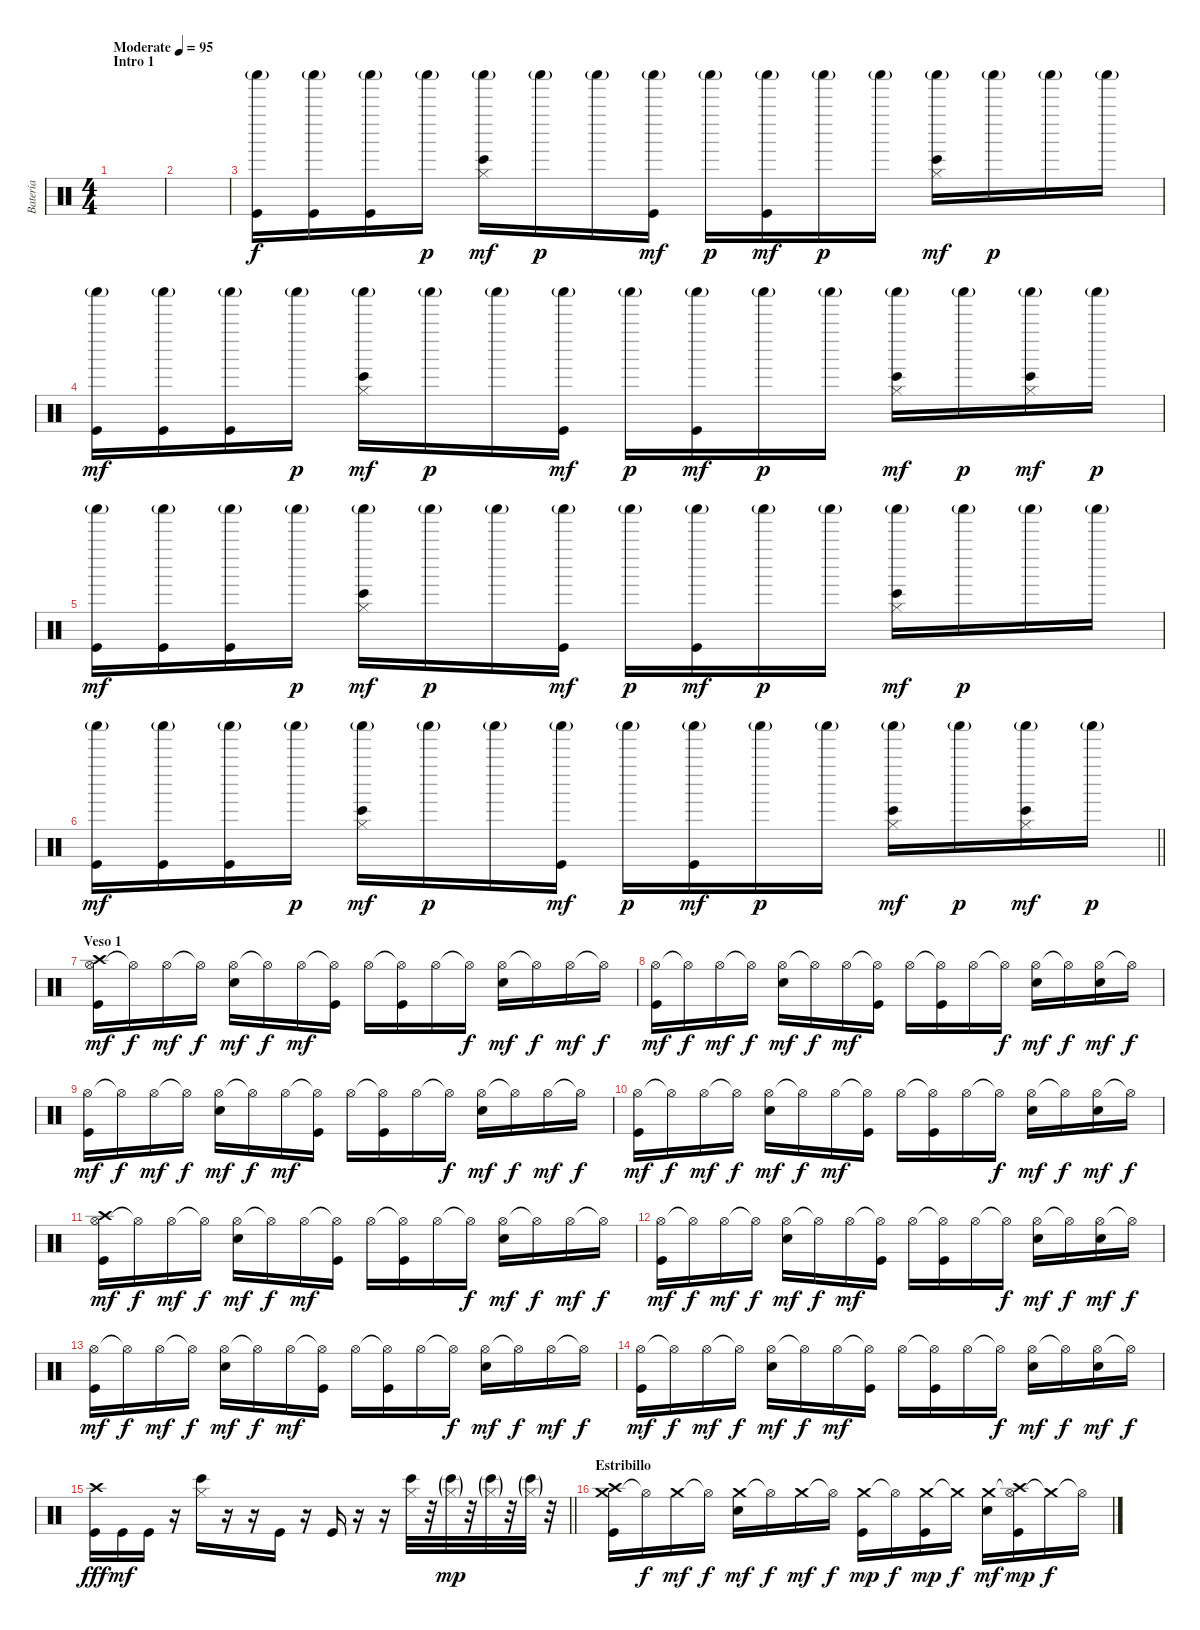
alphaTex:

\track ("Batería" "Batería") {instrument percussion}
\staff {score}
\articulation defaults
\ts (4 4)
\section ("" "Intro 1")
\tempo (95 "Moderate")
\clef neutral
\ks c
|
|
("Shaker (hit)"{g} "Kick (hit)").16 ("Shaker (hit)"{g} "Kick (hit)").16 ("Shaker (hit)"{g} "Kick (hit)").16 "Shaker (hit)"{g}.16{dy p} ("Shaker (hit)"{g} "Bongo High (hit)" "Hi-Hat (closed)").16{dy mf} "Shaker (hit)"{g}.16{dy p} "Shaker (hit)"{g}.16 ("Shaker (hit)"{g} "Kick (hit)").16{dy mf} "Shaker (hit)"{g}.16{dy p} ("Shaker (hit)"{g} "Kick (hit)").16{dy mf} "Shaker (hit)"{g}.16{dy p} "Shaker (hit)"{g}.16 ("Shaker (hit)"{g} "Bongo High (hit)" "Hi-Hat (closed)").16{dy mf} "Shaker (hit)"{g}.16{dy p} "Shaker (hit)"{g}.16 "Shaker (hit)"{g}.16 |
("Shaker (hit)"{g} "Kick (hit)").16{dy mf} ("Shaker (hit)"{g} "Kick (hit)").16 ("Shaker (hit)"{g} "Kick (hit)").16 "Shaker (hit)"{g}.16{dy p} ("Shaker (hit)"{g} "Bongo High (hit)" "Hi-Hat (closed)").16{dy mf} "Shaker (hit)"{g}.16{dy p} "Shaker (hit)"{g}.16 ("Shaker (hit)"{g} "Kick (hit)").16{dy mf} "Shaker (hit)"{g}.16{dy p} ("Shaker (hit)"{g} "Kick (hit)").16{dy mf} "Shaker (hit)"{g}.16{dy p} "Shaker (hit)"{g}.16 ("Shaker (hit)"{g} "Bongo High (hit)" "Hi-Hat (closed)").16{dy mf} "Shaker (hit)"{g}.16{dy p} ("Shaker (hit)"{g} "Bongo High (hit)" "Hi-Hat (closed)").16{dy mf} "Shaker (hit)"{g}.16{dy p} |
("Shaker (hit)"{g} "Kick (hit)").16{dy mf} ("Shaker (hit)"{g} "Kick (hit)").16 ("Shaker (hit)"{g} "Kick (hit)").16 "Shaker (hit)"{g}.16{dy p} ("Shaker (hit)"{g} "Bongo High (hit)" "Hi-Hat (closed)").16{dy mf} "Shaker (hit)"{g}.16{dy p} "Shaker (hit)"{g}.16 ("Shaker (hit)"{g} "Kick (hit)").16{dy mf} "Shaker (hit)"{g}.16{dy p} ("Shaker (hit)"{g} "Kick (hit)").16{dy mf} "Shaker (hit)"{g}.16{dy p} "Shaker (hit)"{g}.16 ("Shaker (hit)"{g} "Bongo High (hit)" "Hi-Hat (closed)").16{dy mf} "Shaker (hit)"{g}.16{dy p} "Shaker (hit)"{g}.16 "Shaker (hit)"{g}.16 |
\barLineRight lightlight
("Shaker (hit)"{g} "Kick (hit)").16{dy mf} ("Shaker (hit)"{g} "Kick (hit)").16 ("Shaker (hit)"{g} "Kick (hit)").16 "Shaker (hit)"{g}.16{dy p} ("Shaker (hit)"{g} "Bongo High (hit)" "Hi-Hat (closed)").16{dy mf} "Shaker (hit)"{g}.16{dy p} "Shaker (hit)"{g}.16 ("Shaker (hit)"{g} "Kick (hit)").16{dy mf} "Shaker (hit)"{g}.16{dy p} ("Shaker (hit)"{g} "Kick (hit)").16{dy mf} "Shaker (hit)"{g}.16{dy p} "Shaker (hit)"{g}.16 ("Shaker (hit)"{g} "Bongo High (hit)" "Hi-Hat (closed)").16{dy mf} "Shaker (hit)"{g}.16{dy p} ("Shaker (hit)"{g} "Bongo High (hit)" "Hi-Hat (closed)").16{dy mf} "Shaker (hit)"{g}.16{dy p} |
\section ("" "Veso 1")
("Hi-Hat (open)" "Kick (hit)" "Crash high (hit)").16{dy mf} "Hi-Hat (open)"{t}.16{dy f} "Hi-Hat (open)".16{dy mf} "Hi-Hat (open)"{t}.16{dy f} ("Hi-Hat (open)" "Electric Snare (hit)").16{dy mf} "Hi-Hat (open)"{t}.16{dy f} "Hi-Hat (open)".16{dy mf} ("Hi-Hat (open)"{t} "Kick (hit)").16 "Hi-Hat (open)".16 ("Hi-Hat (open)"{t} "Kick (hit)").16 "Hi-Hat (open)".16 "Hi-Hat (open)"{t}.16{dy f} ("Hi-Hat (open)" "Electric Snare (hit)").16{dy mf} "Hi-Hat (open)"{t}.16{dy f} "Hi-Hat (open)".16{dy mf} "Hi-Hat (open)"{t}.16{dy f} |
("Hi-Hat (open)" "Kick (hit)").16{dy mf} "Hi-Hat (open)"{t}.16{dy f} "Hi-Hat (open)".16{dy mf} "Hi-Hat (open)"{t}.16{dy f} ("Hi-Hat (open)" "Electric Snare (hit)").16{dy mf} "Hi-Hat (open)"{t}.16{dy f} "Hi-Hat (open)".16{dy mf} ("Hi-Hat (open)"{t} "Kick (hit)").16 "Hi-Hat (open)".16 ("Hi-Hat (open)"{t} "Kick (hit)").16 "Hi-Hat (open)".16 "Hi-Hat (open)"{t}.16{dy f} ("Hi-Hat (open)" "Electric Snare (hit)").16{dy mf} "Hi-Hat (open)"{t}.16{dy f} ("Hi-Hat (open)" "Electric Snare (hit)").16{dy mf} "Hi-Hat (open)"{t}.16{dy f} |
("Hi-Hat (open)" "Kick (hit)").16{dy mf} "Hi-Hat (open)"{t}.16{dy f} "Hi-Hat (open)".16{dy mf} "Hi-Hat (open)"{t}.16{dy f} ("Hi-Hat (open)" "Electric Snare (hit)").16{dy mf} "Hi-Hat (open)"{t}.16{dy f} "Hi-Hat (open)".16{dy mf} ("Hi-Hat (open)"{t} "Kick (hit)").16 "Hi-Hat (open)".16 ("Hi-Hat (open)"{t} "Kick (hit)").16 "Hi-Hat (open)".16 "Hi-Hat (open)"{t}.16{dy f} ("Hi-Hat (open)" "Electric Snare (hit)").16{dy mf} "Hi-Hat (open)"{t}.16{dy f} "Hi-Hat (open)".16{dy mf} "Hi-Hat (open)"{t}.16{dy f} |
("Hi-Hat (open)" "Kick (hit)").16{dy mf} "Hi-Hat (open)"{t}.16{dy f} "Hi-Hat (open)".16{dy mf} "Hi-Hat (open)"{t}.16{dy f} ("Hi-Hat (open)" "Electric Snare (hit)").16{dy mf} "Hi-Hat (open)"{t}.16{dy f} "Hi-Hat (open)".16{dy mf} ("Hi-Hat (open)"{t} "Kick (hit)").16 "Hi-Hat (open)".16 ("Hi-Hat (open)"{t} "Kick (hit)").16 "Hi-Hat (open)".16 "Hi-Hat (open)"{t}.16{dy f} ("Hi-Hat (open)" "Electric Snare (hit)").16{dy mf} "Hi-Hat (open)"{t}.16{dy f} ("Hi-Hat (open)" "Electric Snare (hit)").16{dy mf} "Hi-Hat (open)"{t}.16{dy f} |
("Hi-Hat (open)" "Kick (hit)" "Crash high (hit)").16{dy mf} "Hi-Hat (open)"{t}.16{dy f} "Hi-Hat (open)".16{dy mf} "Hi-Hat (open)"{t}.16{dy f} ("Hi-Hat (open)" "Electric Snare (hit)").16{dy mf} "Hi-Hat (open)"{t}.16{dy f} "Hi-Hat (open)".16{dy mf} ("Hi-Hat (open)"{t} "Kick (hit)").16 "Hi-Hat (open)".16 ("Hi-Hat (open)"{t} "Kick (hit)").16 "Hi-Hat (open)".16 "Hi-Hat (open)"{t}.16{dy f} ("Hi-Hat (open)" "Electric Snare (hit)").16{dy mf} "Hi-Hat (open)"{t}.16{dy f} "Hi-Hat (open)".16{dy mf} "Hi-Hat (open)"{t}.16{dy f} |
("Hi-Hat (open)" "Kick (hit)").16{dy mf} "Hi-Hat (open)"{t}.16{dy f} "Hi-Hat (open)".16{dy mf} "Hi-Hat (open)"{t}.16{dy f} ("Hi-Hat (open)" "Electric Snare (hit)").16{dy mf} "Hi-Hat (open)"{t}.16{dy f} "Hi-Hat (open)".16{dy mf} ("Hi-Hat (open)"{t} "Kick (hit)").16 "Hi-Hat (open)".16 ("Hi-Hat (open)"{t} "Kick (hit)").16 "Hi-Hat (open)".16 "Hi-Hat (open)"{t}.16{dy f} ("Hi-Hat (open)" "Electric Snare (hit)").16{dy mf} "Hi-Hat (open)"{t}.16{dy f} ("Hi-Hat (open)" "Electric Snare (hit)").16{dy mf} "Hi-Hat (open)"{t}.16{dy f} |
("Hi-Hat (open)" "Kick (hit)").16{dy mf} "Hi-Hat (open)"{t}.16{dy f} "Hi-Hat (open)".16{dy mf} "Hi-Hat (open)"{t}.16{dy f} ("Hi-Hat (open)" "Electric Snare (hit)").16{dy mf} "Hi-Hat (open)"{t}.16{dy f} "Hi-Hat (open)".16{dy mf} ("Hi-Hat (open)"{t} "Kick (hit)").16 "Hi-Hat (open)".16 ("Hi-Hat (open)"{t} "Kick (hit)").16 "Hi-Hat (open)".16 "Hi-Hat (open)"{t}.16{dy f} ("Hi-Hat (open)" "Electric Snare (hit)").16{dy mf} "Hi-Hat (open)"{t}.16{dy f} "Hi-Hat (open)".16{dy mf} "Hi-Hat (open)"{t}.16{dy f} |
("Hi-Hat (open)" "Kick (hit)").16{dy mf} "Hi-Hat (open)"{t}.16{dy f} "Hi-Hat (open)".16{dy mf} "Hi-Hat (open)"{t}.16{dy f} ("Hi-Hat (open)" "Electric Snare (hit)").16{dy mf} "Hi-Hat (open)"{t}.16{dy f} "Hi-Hat (open)".16{dy mf} ("Hi-Hat (open)"{t} "Kick (hit)").16 "Hi-Hat (open)".16 ("Hi-Hat (open)"{t} "Kick (hit)").16 "Hi-Hat (open)".16 "Hi-Hat (open)"{t}.16{dy f} ("Hi-Hat (open)" "Electric Snare (hit)").16{dy mf} "Hi-Hat (open)"{t}.16{dy f} ("Hi-Hat (open)" "Electric Snare (hit)").16{dy mf} "Hi-Hat (open)"{t}.16{dy f} |
\barLineRight lightlight
("Kick (hit)" "Crash high (hit)").16{dy fff} "Kick (hit)".16{dy mf} "Kick (hit)".16 r.16 ("Bongo High (hit)" "Hi-Hat (closed)").16 r.16 r.16 "Kick (hit)".16 r.16 "Kick (hit)".16 r.16 r.16 ("Bongo High (hit)" "Hi-Hat (closed)").32 r.32 ("Bongo High (hit)"{g} "Hi-Hat (closed)"{g}).32{dy mp} r.32 ("Bongo High (hit)"{g} "Hi-Hat (closed)"{g}).32 r.32 ("Bongo High (hit)"{g} "Hi-Hat (closed)"{g}).32 r.32 |
\section ("" "Estribillo")
("Crash medium (hit)" "Kick (hit)" "Crash high (hit)").16 "Hi-Hat (open)"{t}.16{dy f} "Crash medium (hit)".16{dy mf} "Hi-Hat (open)"{t}.16{dy f} ("Crash medium (hit)" "Electric Snare (hit)").16{dy mf} "Hi-Hat (open)"{t}.16{dy f} "Crash medium (hit)".16{dy mf} "Hi-Hat (open)"{t}.16{dy f} ("Crash medium (hit)" "Kick (hit)").16{dy mp} "Hi-Hat (open)"{t}.16{dy f} ("Crash medium (hit)" "Kick (hit)").16{dy mp} "Crash medium (hit)"{t}.16{dy f} ("Crash medium (hit)" "Electric Snare (hit)").16{dy mf} ("Hi-Hat (open)"{t} "Kick (hit)" "Crash high (hit)").16{dy mp} "Crash medium (hit)"{t}.16{dy f} "Hi-Hat (open)"{t}.16
